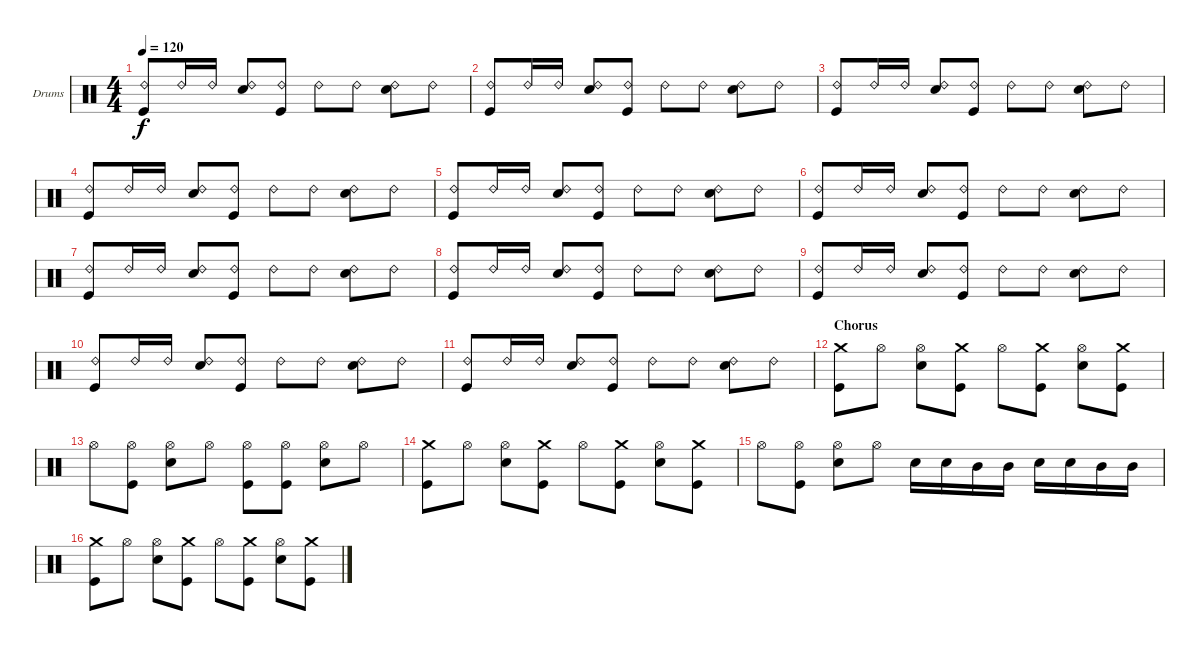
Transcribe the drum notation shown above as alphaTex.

\bracketExtendMode groupsimilarinstruments
\firstSystemTrackNameOrientation horizontal
\otherSystemsTrackNameOrientation horizontal
\track ("Fabrizio" "Drums") {instrument percussion}
\staff {score}
\articulation defaults
\ts (4 4)
\tempo 120
\clef neutral
\ks c
("Ride (bell) 2" "Kick (hit)").8{dy f} "Ride (bell) 2".16 "Ride (bell) 2".16 ("Ride (bell) 2" "Snare (hit) 2").8 ("Ride (bell) 2" "Kick (hit)").8 "Ride (bell) 2".8 "Ride (bell) 2".8 ("Ride (bell) 2" "Snare (hit) 2").8 "Ride (bell) 2".8 |
("Ride (bell) 2" "Kick (hit)").8 "Ride (bell) 2".16 "Ride (bell) 2".16 ("Ride (bell) 2" "Snare (hit) 2").8 ("Ride (bell) 2" "Kick (hit)").8 "Ride (bell) 2".8 "Ride (bell) 2".8 ("Ride (bell) 2" "Snare (hit) 2").8 "Ride (bell) 2".8 |
("Ride (bell) 2" "Kick (hit)").8 "Ride (bell) 2".16 "Ride (bell) 2".16 ("Ride (bell) 2" "Snare (hit) 2").8 ("Ride (bell) 2" "Kick (hit)").8 "Ride (bell) 2".8 "Ride (bell) 2".8 ("Ride (bell) 2" "Snare (hit) 2").8 "Ride (bell) 2".8 |
("Ride (bell) 2" "Kick (hit)").8 "Ride (bell) 2".16 "Ride (bell) 2".16 ("Ride (bell) 2" "Snare (hit) 2").8 ("Ride (bell) 2" "Kick (hit)").8 "Ride (bell) 2".8 "Ride (bell) 2".8 ("Ride (bell) 2" "Snare (hit) 2").8 "Ride (bell) 2".8 |
("Ride (bell) 2" "Kick (hit)").8 "Ride (bell) 2".16 "Ride (bell) 2".16 ("Ride (bell) 2" "Snare (hit) 2").8 ("Ride (bell) 2" "Kick (hit)").8 "Ride (bell) 2".8 "Ride (bell) 2".8 ("Ride (bell) 2" "Snare (hit) 2").8 "Ride (bell) 2".8 |
("Ride (bell) 2" "Kick (hit)").8 "Ride (bell) 2".16 "Ride (bell) 2".16 ("Ride (bell) 2" "Snare (hit) 2").8 ("Ride (bell) 2" "Kick (hit)").8 "Ride (bell) 2".8 "Ride (bell) 2".8 ("Ride (bell) 2" "Snare (hit) 2").8 "Ride (bell) 2".8 |
("Ride (bell) 2" "Kick (hit)").8 "Ride (bell) 2".16 "Ride (bell) 2".16 ("Ride (bell) 2" "Snare (hit) 2").8 ("Ride (bell) 2" "Kick (hit)").8 "Ride (bell) 2".8 "Ride (bell) 2".8 ("Ride (bell) 2" "Snare (hit) 2").8 "Ride (bell) 2".8 |
("Ride (bell) 2" "Kick (hit)").8 "Ride (bell) 2".16 "Ride (bell) 2".16 ("Ride (bell) 2" "Snare (hit) 2").8 ("Ride (bell) 2" "Kick (hit)").8 "Ride (bell) 2".8 "Ride (bell) 2".8 ("Ride (bell) 2" "Snare (hit) 2").8 "Ride (bell) 2".8 |
("Ride (bell) 2" "Kick (hit)").8 "Ride (bell) 2".16 "Ride (bell) 2".16 ("Ride (bell) 2" "Snare (hit) 2").8 ("Ride (bell) 2" "Kick (hit)").8 "Ride (bell) 2".8 "Ride (bell) 2".8 ("Ride (bell) 2" "Snare (hit) 2").8 "Ride (bell) 2".8 |
("Ride (bell) 2" "Kick (hit)").8 "Ride (bell) 2".16 "Ride (bell) 2".16 ("Ride (bell) 2" "Snare (hit) 2").8 ("Ride (bell) 2" "Kick (hit)").8 "Ride (bell) 2".8 "Ride (bell) 2".8 ("Ride (bell) 2" "Snare (hit) 2").8 "Ride (bell) 2".8 |
("Ride (bell) 2" "Kick (hit)").8 "Ride (bell) 2".16 "Ride (bell) 2".16 ("Ride (bell) 2" "Snare (hit) 2").8 ("Ride (bell) 2" "Kick (hit)").8 "Ride (bell) 2".8 "Ride (bell) 2".8 ("Ride (bell) 2" "Snare (hit) 2").8 "Ride (bell) 2".8 |
\section ("" "Chorus")
("Crash medium (hit)" "Kick (hit)").8 "Hi-Hat (open)".8 ("Hi-Hat (open)" "Snare (hit) 2").8 ("Crash medium (hit)" "Kick (hit)").8 "Hi-Hat (open)".8 ("Crash medium (hit)" "Kick (hit)").8 ("Hi-Hat (open)" "Snare (hit) 2").8 ("Crash medium (hit)" "Kick (hit)").8 |
"Hi-Hat (open)".8 ("Hi-Hat (open)" "Kick (hit)").8 ("Hi-Hat (open)" "Snare (hit) 2").8 "Hi-Hat (open)".8 ("Hi-Hat (open)" "Kick (hit)").8 ("Hi-Hat (open)" "Kick (hit)").8 ("Hi-Hat (open)" "Snare (hit) 2").8 "Hi-Hat (open)".8 |
("Crash medium (hit)" "Kick (hit)").8 "Hi-Hat (open)".8 ("Hi-Hat (open)" "Snare (hit) 2").8 ("Crash medium (hit)" "Kick (hit)").8 "Hi-Hat (open)".8 ("Crash medium (hit)" "Kick (hit)").8 ("Hi-Hat (open)" "Snare (hit) 2").8 ("Crash medium (hit)" "Kick (hit)").8 |
"Hi-Hat (open)".8 ("Hi-Hat (open)" "Kick (hit)").8 ("Hi-Hat (open)" "Snare (hit) 2").8 "Hi-Hat (open)".8 "Snare (hit) 2".16 "Snare (hit) 2".16 "Mid Tom (hit)".16 "Mid Tom (hit)".16 "Snare (hit) 2".16 "Snare (hit) 2".16 "Mid Tom (hit)".16 "Mid Tom (hit)".16 |
("Crash medium (hit)" "Kick (hit)").8 "Hi-Hat (open)".8 ("Hi-Hat (open)" "Snare (hit) 2").8 ("Crash medium (hit)" "Kick (hit)").8 "Hi-Hat (open)".8 ("Crash medium (hit)" "Kick (hit)").8 ("Hi-Hat (open)" "Snare (hit) 2").8 ("Crash medium (hit)" "Kick (hit)").8
